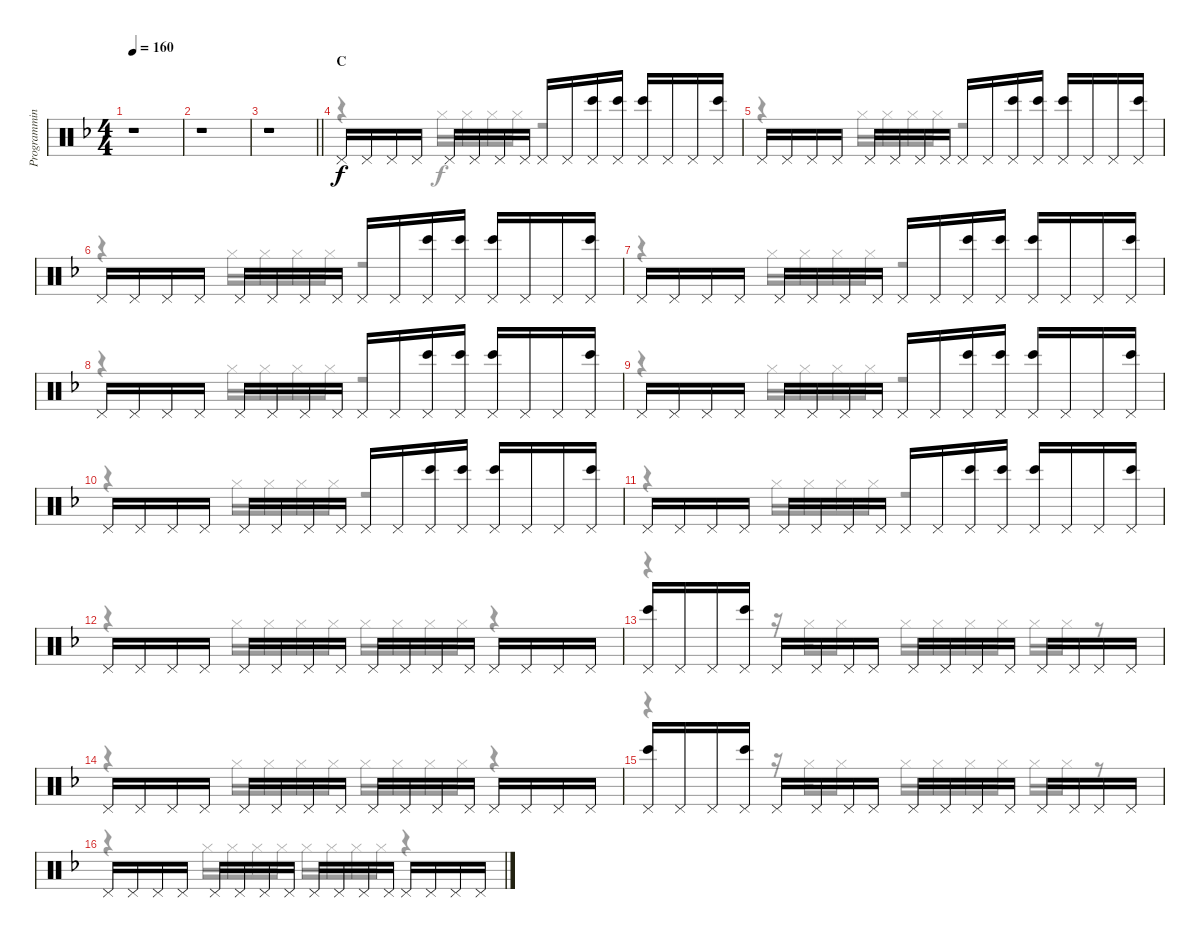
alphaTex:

\track ("Programming" "Programmin") {instrument percussion}
\staff {score}
\articulation defaults
\voice
\ts (4 4)
\tempo 160
\clef neutral
\ks f
r.1{dy f} |
r.1 |
\barLineRight lightlight
r.1 |
\section ("" "C")
"Pedal Hi-Hat (hit)".16 "Pedal Hi-Hat (hit)".16 "Pedal Hi-Hat (hit)".16 "Pedal Hi-Hat (hit)".16 "Pedal Hi-Hat (hit)".16 "Pedal Hi-Hat (hit)".16 "Pedal Hi-Hat (hit)".16 "Pedal Hi-Hat (hit)".16 "Pedal Hi-Hat (hit)".16 "Pedal Hi-Hat (hit)".16 ("Pedal Hi-Hat (hit)" "Bongo High (hit)").16 ("Pedal Hi-Hat (hit)" "Bongo High (hit)").16 ("Pedal Hi-Hat (hit)" "Bongo High (hit)").16 "Pedal Hi-Hat (hit)".16 "Pedal Hi-Hat (hit)".16 ("Pedal Hi-Hat (hit)" "Bongo High (hit)").16 |
"Pedal Hi-Hat (hit)".16 "Pedal Hi-Hat (hit)".16 "Pedal Hi-Hat (hit)".16 "Pedal Hi-Hat (hit)".16 "Pedal Hi-Hat (hit)".16 "Pedal Hi-Hat (hit)".16 "Pedal Hi-Hat (hit)".16 "Pedal Hi-Hat (hit)".16 "Pedal Hi-Hat (hit)".16 "Pedal Hi-Hat (hit)".16 ("Pedal Hi-Hat (hit)" "Bongo High (hit)").16 ("Pedal Hi-Hat (hit)" "Bongo High (hit)").16 ("Pedal Hi-Hat (hit)" "Bongo High (hit)").16 "Pedal Hi-Hat (hit)".16 "Pedal Hi-Hat (hit)".16 ("Pedal Hi-Hat (hit)" "Bongo High (hit)").16 |
"Pedal Hi-Hat (hit)".16 "Pedal Hi-Hat (hit)".16 "Pedal Hi-Hat (hit)".16 "Pedal Hi-Hat (hit)".16 "Pedal Hi-Hat (hit)".16 "Pedal Hi-Hat (hit)".16 "Pedal Hi-Hat (hit)".16 "Pedal Hi-Hat (hit)".16 "Pedal Hi-Hat (hit)".16 "Pedal Hi-Hat (hit)".16 ("Pedal Hi-Hat (hit)" "Bongo High (hit)").16 ("Pedal Hi-Hat (hit)" "Bongo High (hit)").16 ("Pedal Hi-Hat (hit)" "Bongo High (hit)").16 "Pedal Hi-Hat (hit)".16 "Pedal Hi-Hat (hit)".16 ("Pedal Hi-Hat (hit)" "Bongo High (hit)").16 |
"Pedal Hi-Hat (hit)".16 "Pedal Hi-Hat (hit)".16 "Pedal Hi-Hat (hit)".16 "Pedal Hi-Hat (hit)".16 "Pedal Hi-Hat (hit)".16 "Pedal Hi-Hat (hit)".16 "Pedal Hi-Hat (hit)".16 "Pedal Hi-Hat (hit)".16 "Pedal Hi-Hat (hit)".16 "Pedal Hi-Hat (hit)".16 ("Pedal Hi-Hat (hit)" "Bongo High (hit)").16 ("Pedal Hi-Hat (hit)" "Bongo High (hit)").16 ("Pedal Hi-Hat (hit)" "Bongo High (hit)").16 "Pedal Hi-Hat (hit)".16 "Pedal Hi-Hat (hit)".16 ("Pedal Hi-Hat (hit)" "Bongo High (hit)").16 |
"Pedal Hi-Hat (hit)".16 "Pedal Hi-Hat (hit)".16 "Pedal Hi-Hat (hit)".16 "Pedal Hi-Hat (hit)".16 "Pedal Hi-Hat (hit)".16 "Pedal Hi-Hat (hit)".16 "Pedal Hi-Hat (hit)".16 "Pedal Hi-Hat (hit)".16 "Pedal Hi-Hat (hit)".16 "Pedal Hi-Hat (hit)".16 ("Pedal Hi-Hat (hit)" "Bongo High (hit)").16 ("Pedal Hi-Hat (hit)" "Bongo High (hit)").16 ("Pedal Hi-Hat (hit)" "Bongo High (hit)").16 "Pedal Hi-Hat (hit)".16 "Pedal Hi-Hat (hit)".16 ("Pedal Hi-Hat (hit)" "Bongo High (hit)").16 |
"Pedal Hi-Hat (hit)".16 "Pedal Hi-Hat (hit)".16 "Pedal Hi-Hat (hit)".16 "Pedal Hi-Hat (hit)".16 "Pedal Hi-Hat (hit)".16 "Pedal Hi-Hat (hit)".16 "Pedal Hi-Hat (hit)".16 "Pedal Hi-Hat (hit)".16 "Pedal Hi-Hat (hit)".16 "Pedal Hi-Hat (hit)".16 ("Pedal Hi-Hat (hit)" "Bongo High (hit)").16 ("Pedal Hi-Hat (hit)" "Bongo High (hit)").16 ("Pedal Hi-Hat (hit)" "Bongo High (hit)").16 "Pedal Hi-Hat (hit)".16 "Pedal Hi-Hat (hit)".16 ("Pedal Hi-Hat (hit)" "Bongo High (hit)").16 |
"Pedal Hi-Hat (hit)".16 "Pedal Hi-Hat (hit)".16 "Pedal Hi-Hat (hit)".16 "Pedal Hi-Hat (hit)".16 "Pedal Hi-Hat (hit)".16 "Pedal Hi-Hat (hit)".16 "Pedal Hi-Hat (hit)".16 "Pedal Hi-Hat (hit)".16 "Pedal Hi-Hat (hit)".16 "Pedal Hi-Hat (hit)".16 ("Pedal Hi-Hat (hit)" "Bongo High (hit)").16 ("Pedal Hi-Hat (hit)" "Bongo High (hit)").16 ("Pedal Hi-Hat (hit)" "Bongo High (hit)").16 "Pedal Hi-Hat (hit)".16 "Pedal Hi-Hat (hit)".16 ("Pedal Hi-Hat (hit)" "Bongo High (hit)").16 |
"Pedal Hi-Hat (hit)".16 "Pedal Hi-Hat (hit)".16 "Pedal Hi-Hat (hit)".16 "Pedal Hi-Hat (hit)".16 "Pedal Hi-Hat (hit)".16 "Pedal Hi-Hat (hit)".16 "Pedal Hi-Hat (hit)".16 "Pedal Hi-Hat (hit)".16 "Pedal Hi-Hat (hit)".16 "Pedal Hi-Hat (hit)".16 ("Pedal Hi-Hat (hit)" "Bongo High (hit)").16 ("Pedal Hi-Hat (hit)" "Bongo High (hit)").16 ("Pedal Hi-Hat (hit)" "Bongo High (hit)").16 "Pedal Hi-Hat (hit)".16 "Pedal Hi-Hat (hit)".16 ("Pedal Hi-Hat (hit)" "Bongo High (hit)").16 |
"Pedal Hi-Hat (hit)".16 "Pedal Hi-Hat (hit)".16 "Pedal Hi-Hat (hit)".16 "Pedal Hi-Hat (hit)".16 "Pedal Hi-Hat (hit)".16 "Pedal Hi-Hat (hit)".16 "Pedal Hi-Hat (hit)".16 "Pedal Hi-Hat (hit)".16 "Pedal Hi-Hat (hit)".16 "Pedal Hi-Hat (hit)".16 "Pedal Hi-Hat (hit)".16 "Pedal Hi-Hat (hit)".16 "Pedal Hi-Hat (hit)".16 "Pedal Hi-Hat (hit)".16 "Pedal Hi-Hat (hit)".16 "Pedal Hi-Hat (hit)".16 |
("Pedal Hi-Hat (hit)" "Bongo High (hit)").16 "Pedal Hi-Hat (hit)".16 "Pedal Hi-Hat (hit)".16 ("Pedal Hi-Hat (hit)" "Bongo High (hit)").16 "Pedal Hi-Hat (hit)".16 "Pedal Hi-Hat (hit)".16 "Pedal Hi-Hat (hit)".16 "Pedal Hi-Hat (hit)".16 "Pedal Hi-Hat (hit)".16 "Pedal Hi-Hat (hit)".16 "Pedal Hi-Hat (hit)".16 "Pedal Hi-Hat (hit)".16 "Pedal Hi-Hat (hit)".16 "Pedal Hi-Hat (hit)".16 "Pedal Hi-Hat (hit)".16 "Pedal Hi-Hat (hit)".16 |
"Pedal Hi-Hat (hit)".16 "Pedal Hi-Hat (hit)".16 "Pedal Hi-Hat (hit)".16 "Pedal Hi-Hat (hit)".16 "Pedal Hi-Hat (hit)".16 "Pedal Hi-Hat (hit)".16 "Pedal Hi-Hat (hit)".16 "Pedal Hi-Hat (hit)".16 "Pedal Hi-Hat (hit)".16 "Pedal Hi-Hat (hit)".16 "Pedal Hi-Hat (hit)".16 "Pedal Hi-Hat (hit)".16 "Pedal Hi-Hat (hit)".16 "Pedal Hi-Hat (hit)".16 "Pedal Hi-Hat (hit)".16 "Pedal Hi-Hat (hit)".16 |
("Pedal Hi-Hat (hit)" "Bongo High (hit)").16 "Pedal Hi-Hat (hit)".16 "Pedal Hi-Hat (hit)".16 ("Pedal Hi-Hat (hit)" "Bongo High (hit)").16 "Pedal Hi-Hat (hit)".16 "Pedal Hi-Hat (hit)".16 "Pedal Hi-Hat (hit)".16 "Pedal Hi-Hat (hit)".16 "Pedal Hi-Hat (hit)".16 "Pedal Hi-Hat (hit)".16 "Pedal Hi-Hat (hit)".16 "Pedal Hi-Hat (hit)".16 "Pedal Hi-Hat (hit)".16 "Pedal Hi-Hat (hit)".16 "Pedal Hi-Hat (hit)".16 "Pedal Hi-Hat (hit)".16 |
"Pedal Hi-Hat (hit)".16 "Pedal Hi-Hat (hit)".16 "Pedal Hi-Hat (hit)".16 "Pedal Hi-Hat (hit)".16 "Pedal Hi-Hat (hit)".16 "Pedal Hi-Hat (hit)".16 "Pedal Hi-Hat (hit)".16 "Pedal Hi-Hat (hit)".16 "Pedal Hi-Hat (hit)".16 "Pedal Hi-Hat (hit)".16 "Pedal Hi-Hat (hit)".16 "Pedal Hi-Hat (hit)".16 "Pedal Hi-Hat (hit)".16 "Pedal Hi-Hat (hit)".16 "Pedal Hi-Hat (hit)".16 "Pedal Hi-Hat (hit)".16
\voice
\clef neutral
\ottava regular
\simile none
\ks f
r.1{dy f} |
r.1 |
\barLineRight lightlight
r.1 |
r.4 "Hi-Hat (closed)".16 "Hi-Hat (closed)".16 "Hi-Hat (closed)".16 "Hi-Hat (closed)".16 r.2 |
r.4 "Hi-Hat (closed)".16 "Hi-Hat (closed)".16 "Hi-Hat (closed)".16 "Hi-Hat (closed)".16 r.2 |
r.4 "Hi-Hat (closed)".16 "Hi-Hat (closed)".16 "Hi-Hat (closed)".16 "Hi-Hat (closed)".16 r.2 |
r.4 "Hi-Hat (closed)".16 "Hi-Hat (closed)".16 "Hi-Hat (closed)".16 "Hi-Hat (closed)".16 r.2 |
r.4 "Hi-Hat (closed)".16 "Hi-Hat (closed)".16 "Hi-Hat (closed)".16 "Hi-Hat (closed)".16 r.2 |
r.4 "Hi-Hat (closed)".16 "Hi-Hat (closed)".16 "Hi-Hat (closed)".16 "Hi-Hat (closed)".16 r.2 |
r.4 "Hi-Hat (closed)".16 "Hi-Hat (closed)".16 "Hi-Hat (closed)".16 "Hi-Hat (closed)".16 r.2 |
r.4 "Hi-Hat (closed)".16 "Hi-Hat (closed)".16 "Hi-Hat (closed)".16 "Hi-Hat (closed)".16 r.2 |
r.4 "Hi-Hat (closed)".16 "Hi-Hat (closed)".16 "Hi-Hat (closed)".16 "Hi-Hat (closed)".16 "Hi-Hat (closed)".16 "Hi-Hat (closed)".16 "Hi-Hat (closed)".16 "Hi-Hat (closed)".16 r.4 |
r.4 r.16 "Hi-Hat (closed)".16 "Hi-Hat (closed)".8 "Hi-Hat (closed)".16 "Hi-Hat (closed)".16 "Hi-Hat (closed)".16 "Hi-Hat (closed)".16 "Hi-Hat (closed)".16 "Hi-Hat (closed)".16 r.8 |
r.4 "Hi-Hat (closed)".16 "Hi-Hat (closed)".16 "Hi-Hat (closed)".16 "Hi-Hat (closed)".16 "Hi-Hat (closed)".16 "Hi-Hat (closed)".16 "Hi-Hat (closed)".16 "Hi-Hat (closed)".16 r.4 |
r.4 r.16 "Hi-Hat (closed)".16 "Hi-Hat (closed)".8 "Hi-Hat (closed)".16 "Hi-Hat (closed)".16 "Hi-Hat (closed)".16 "Hi-Hat (closed)".16 "Hi-Hat (closed)".16 "Hi-Hat (closed)".16 r.8 |
r.4 "Hi-Hat (closed)".16 "Hi-Hat (closed)".16 "Hi-Hat (closed)".16 "Hi-Hat (closed)".16 "Hi-Hat (closed)".16 "Hi-Hat (closed)".16 "Hi-Hat (closed)".16 "Hi-Hat (closed)".16 r.4
